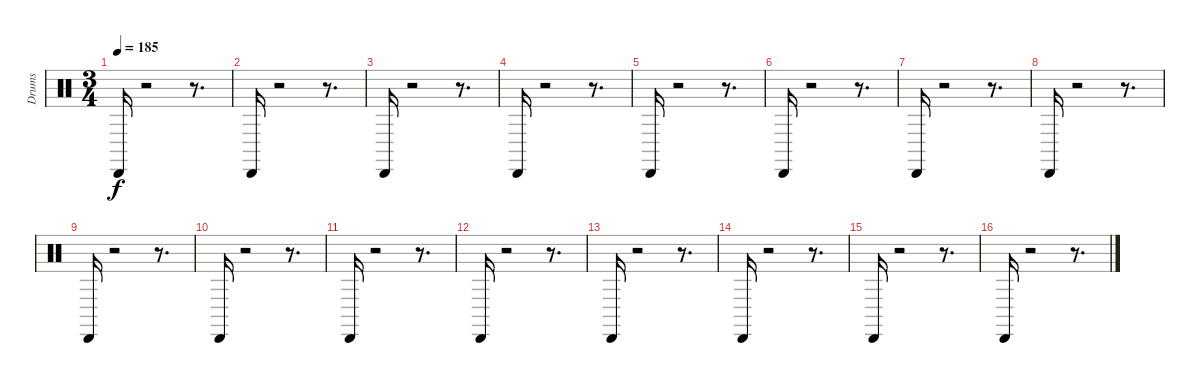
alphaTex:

\track ("Drums " "Drums ") {instrument percussion}
\staff {score}
\articulation defaults
\ts (3 4)
\tempo 185
\clef neutral
\ks c "Cabasa (hit)".16{dy f}
r.2 r.8{d} |
"Cabasa (hit)".16 r.2 r.8{d} |
"Cabasa (hit)".16 r.2 r.8{d} |
"Cabasa (hit)".16 r.2 r.8{d} |
"Cabasa (hit)".16 r.2 r.8{d} |
"Cabasa (hit)".16 r.2 r.8{d} |
"Cabasa (hit)".16 r.2 r.8{d} |
"Cabasa (hit)".16 r.2 r.8{d} |
"Cabasa (hit)".16 r.2 r.8{d} |
"Cabasa (hit)".16 r.2 r.8{d} |
"Cabasa (hit)".16 r.2 r.8{d} |
"Cabasa (hit)".16 r.2 r.8{d} |
"Cabasa (hit)".16 r.2 r.8{d} |
"Cabasa (hit)".16 r.2 r.8{d} |
"Cabasa (hit)".16 r.2 r.8{d} |
"Cabasa (hit)".16 r.2 r.8{d}
